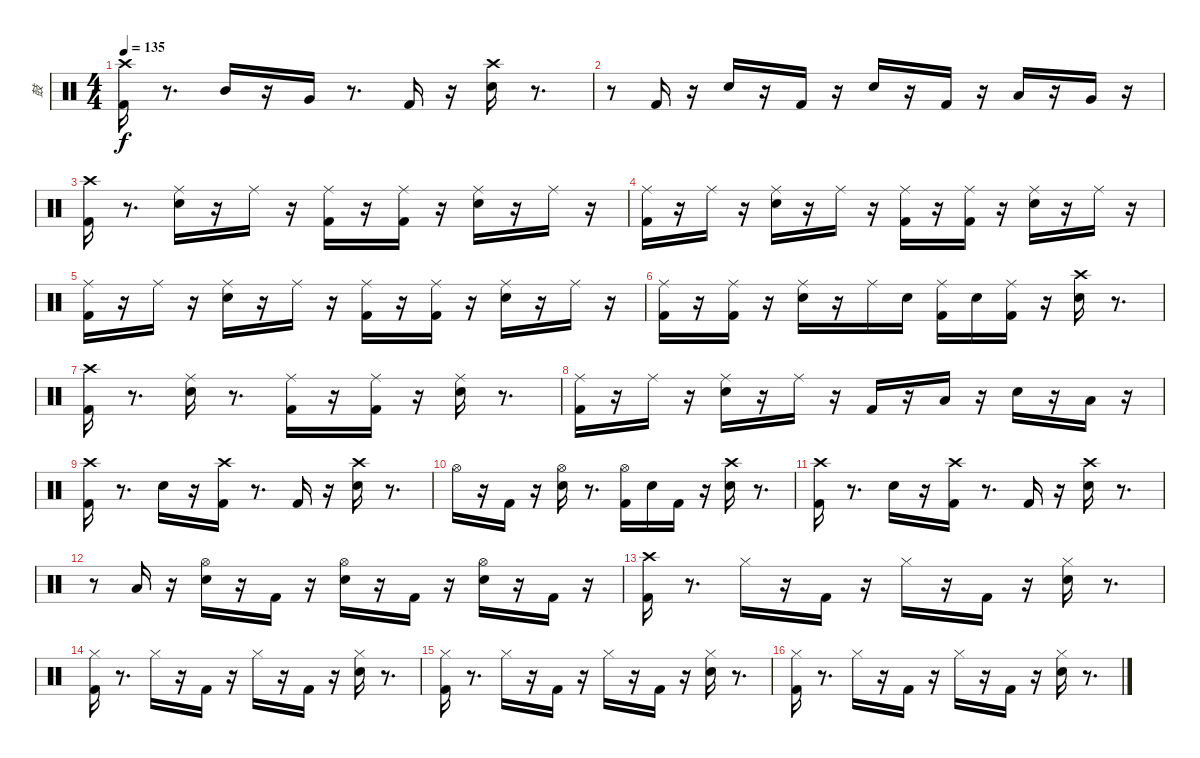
\track ("鼓" "鼓") {instrument percussion}
\staff {score}
\articulation defaults
\ts (4 4)
\tempo 135
\clef neutral
\ks c
("Crash high (hit)" "Kick (hit) 2").16{dy f} r.8{d} "Mid Tom (hit)".16 r.16 "Very Low Tom (hit)".16 r.8{d} "Kick (hit) 2".16 r.16 ("Crash high (hit)" "Electric Snare (hit)").16 r.8{d} |
r.8 "Kick (hit) 2".16 r.16 "Electric Snare (hit)".16 r.16 "Kick (hit) 2".16 r.16 "Electric Snare (hit)".16 r.16 "Kick (hit) 2".16 r.16 "Low Tom (hit)".16 r.16 "Very Low Tom (hit)".16 r.16 |
("Crash high (hit)" "Kick (hit) 2").16 r.8{d} ("Ride (middle)" "Electric Snare (hit)").16 r.16 "Ride (middle)".16 r.16 ("Ride (middle)" "Kick (hit) 2").16 r.16 ("Ride (middle)" "Kick (hit) 2").16 r.16 ("Ride (middle)" "Electric Snare (hit)").16 r.16 "Ride (middle)".16 r.16 |
("Ride (middle)" "Kick (hit) 2").16 r.16 "Ride (middle)".16 r.16 ("Ride (middle)" "Electric Snare (hit)").16 r.16 "Ride (middle)".16 r.16 ("Ride (middle)" "Kick (hit) 2").16 r.16 ("Ride (middle)" "Kick (hit) 2").16 r.16 ("Ride (middle)" "Electric Snare (hit)").16 r.16 "Ride (middle)".16 r.16 |
("Ride (middle)" "Kick (hit) 2").16 r.16 "Ride (middle)".16 r.16 ("Ride (middle)" "Electric Snare (hit)").16 r.16 "Ride (middle)".16 r.16 ("Ride (middle)" "Kick (hit) 2").16 r.16 ("Ride (middle)" "Kick (hit) 2").16 r.16 ("Ride (middle)" "Electric Snare (hit)").16 r.16 "Ride (middle)".16 r.16 |
("Ride (middle)" "Kick (hit) 2").16 r.16 ("Ride (middle)" "Kick (hit) 2").16 r.16 ("Ride (middle)" "Electric Snare (hit)").16 r.16 "Ride (middle)".16 "Electric Snare (hit)".16 ("Kick (hit) 2" "Ride (middle)").16 "Electric Snare (hit)".16 ("Kick (hit) 2" "Ride (middle)").16 r.16 ("Crash high (hit)" "Electric Snare (hit)").16 r.8{d} |
("Crash high (hit)" "Kick (hit) 2").16 r.8{d} ("Ride (middle)" "Electric Snare (hit)").16 r.8{d} ("Ride (middle)" "Kick (hit) 2").16 r.16 ("Ride (middle)" "Kick (hit) 2").16 r.16 ("Ride (middle)" "Electric Snare (hit)").16 r.8{d} |
("Ride (middle)" "Kick (hit) 2").16 r.16 "Ride (middle)".16 r.16 ("Ride (middle)" "Electric Snare (hit)").16 r.16 "Ride (middle)".16 r.16 "Kick (hit) 2".16 r.16 "Low Tom (hit)".16 r.16 "Electric Snare (hit)".16 r.16 "Low Tom (hit)".16 r.16 |
("Crash high (hit)" "Kick (hit) 2").16 r.8{d} "Electric Snare (hit)".16 r.16 ("Crash high (hit)" "Kick (hit) 2").16 r.8{d} "Kick (hit) 2".16 r.16 ("Crash high (hit)" "Electric Snare (hit)").16 r.8{d} |
"Hi-Hat (open)".16 r.16 "Kick (hit) 2".16 r.16 ("Hi-Hat (open)" "Electric Snare (hit)").16 r.8{d} ("Hi-Hat (open)" "Kick (hit) 2").16 "Electric Snare (hit)".16 "Kick (hit) 2".16 r.16 ("Crash high (hit)" "Electric Snare (hit)").16 r.8{d} |
("Crash high (hit)" "Kick (hit) 2").16 r.8{d} "Electric Snare (hit)".16 r.16 ("Crash high (hit)" "Kick (hit) 2").16 r.8{d} "Kick (hit) 2".16 r.16 ("Crash high (hit)" "Electric Snare (hit)").16 r.8{d} |
r.8 "Low Tom (hit)".16 r.16 ("Hi-Hat (open)" "Electric Snare (hit)").16 r.16 "Kick (hit) 2".16 r.16 ("Hi-Hat (open)" "Electric Snare (hit)").16 r.16 "Kick (hit) 2".16 r.16 ("Hi-Hat (open)" "Electric Snare (hit)").16 r.16 "Kick (hit) 2".16 r.16 |
("Crash high (hit)" "Kick (hit) 2").16 r.8{d} "Hi-Hat (closed)".16 r.16 "Kick (hit) 2".16 r.16 "Hi-Hat (closed)".16 r.16 "Kick (hit) 2".16 r.16 ("Electric Snare (hit)" "Hi-Hat (closed)").16 r.8{d} |
("Hi-Hat (closed)" "Kick (hit) 2").16 r.8{d} "Hi-Hat (closed)".16 r.16 "Kick (hit) 2".16 r.16 "Hi-Hat (closed)".16 r.16 "Kick (hit) 2".16 r.16 ("Hi-Hat (closed)" "Electric Snare (hit)").16 r.8{d} |
("Hi-Hat (closed)" "Kick (hit) 2").16 r.8{d} "Hi-Hat (closed)".16 r.16 "Kick (hit) 2".16 r.16 "Hi-Hat (closed)".16 r.16 "Kick (hit) 2".16 r.16 ("Electric Snare (hit)" "Hi-Hat (closed)").16 r.8{d} |
("Hi-Hat (closed)" "Kick (hit) 2").16 r.8{d} "Hi-Hat (closed)".16 r.16 "Kick (hit) 2".16 r.16 "Hi-Hat (closed)".16 r.16 "Kick (hit) 2".16 r.16 ("Hi-Hat (closed)" "Electric Snare (hit)").16 r.8{d}
